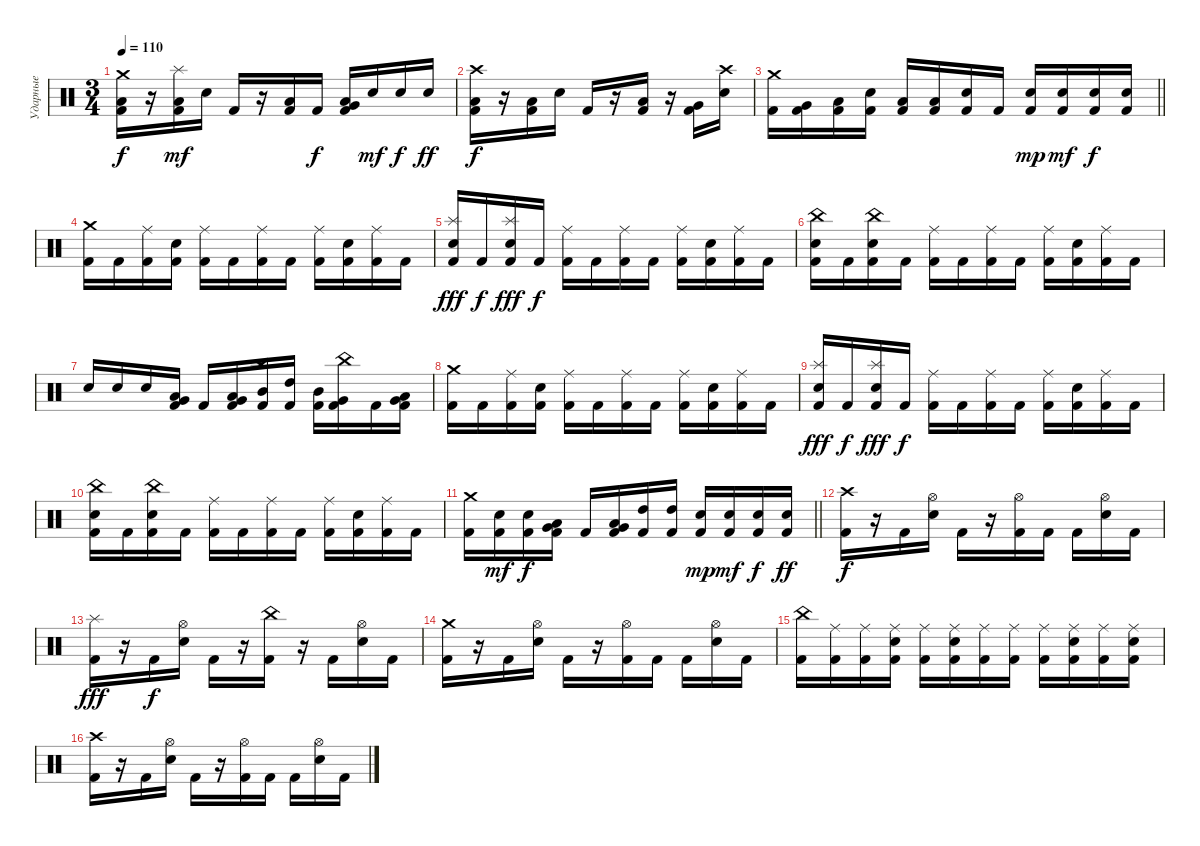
\track ("Ударные" "Ударные") {instrument percussion}
\staff {score}
\articulation defaults
\ts (3 4)
\tempo 110
\clef neutral
\ks c
("Crash medium (hit)" "Low Floor Tom (hit)" "Kick (hit) 2").16{dy f} r.16 ("Splash (hit)" "Low Tom (hit)" "Kick (hit) 2").16{dy mf} "Snare (hit) 2".16 "Kick (hit) 2".16 r.16 ("Low Floor Tom (hit)" "Kick (hit) 2").16 "Kick (hit) 2".16{dy f} ("Low Tom (hit)" "Very Low Tom (hit)" "Kick (hit) 2").16 "Snare (hit) 2".16{dy mf} "Snare (hit) 2".16{dy f} "Snare (hit) 2".16{dy ff} |
("Crash high (hit)" "Low Floor Tom (hit)" "Kick (hit) 2").16{dy f} r.16 ("Low Tom (hit)" "Kick (hit) 2").16 "Snare (hit) 2".16 "Kick (hit) 2".16 r.16 ("Low Floor Tom (hit)" "Kick (hit) 2").16 r.16 ("Very Low Tom (hit)" "Kick (hit) 2").16 ("Crash high (hit)" "Snare (hit) 2").16 |
\barLineRight lightlight
("Crash medium (hit)" "Kick (hit) 2").16 ("Very Low Tom (hit)" "Kick (hit) 2").16 ("Low Floor Tom (hit)" "Kick (hit) 2").16 ("Snare (hit) 2" "Kick (hit) 2").16 ("Low Tom (hit)" "Kick (hit) 2").16 ("Low Tom (hit)" "Kick (hit) 2").16 ("Snare (hit) 2" "Kick (hit) 2").16 "Kick (hit) 2".16 ("Snare (hit) 2" "Kick (hit) 2").16{dy mp} ("Snare (hit) 2" "Kick (hit) 2").16{dy mf} ("Snare (hit) 2" "Kick (hit) 2").16{dy f} ("Snare (hit) 2" "Kick (hit) 2").16 |
("Crash medium (hit)" "Kick (hit) 2").16 "Kick (hit) 2".16 ("Ride (middle)" "Kick (hit) 2").16 ("Snare (hit) 2" "Kick (hit) 2").16 ("Ride (middle)" "Kick (hit) 2").16 "Kick (hit) 2".16 ("Ride (middle)" "Kick (hit) 2").16 "Kick (hit) 2".16 ("Ride (middle)" "Kick (hit) 2").16 ("Snare (hit) 2" "Kick (hit) 2").16 ("Ride (middle)" "Kick (hit) 2").16 "Kick (hit) 2".16 |
("Splash (hit)" "Snare (hit) 2" "Kick (hit) 2").16{dy fff} "Kick (hit) 2".16{dy f} ("Splash (hit)" "Snare (hit) 2" "Kick (hit) 2").16{dy fff} "Kick (hit) 2".16{dy f} ("Ride (middle)" "Kick (hit) 2").16 "Kick (hit) 2".16 ("Ride (middle)" "Kick (hit) 2").16 "Kick (hit) 2".16 ("Ride (middle)" "Kick (hit) 2").16 ("Snare (hit) 2" "Kick (hit) 2").16 ("Ride (middle)" "Kick (hit) 2").16 "Kick (hit) 2".16 |
("China (hit)" "Snare (hit) 2" "Kick (hit) 2").16 "Kick (hit) 2".16 ("China (hit)" "Snare (hit) 2" "Kick (hit) 2").16 "Kick (hit) 2".16 ("Ride (middle)" "Kick (hit) 2").16 "Kick (hit) 2".16 ("Ride (middle)" "Kick (hit) 2").16 "Kick (hit) 2".16 ("Ride (middle)" "Kick (hit) 2").16 ("Snare (hit) 2" "Kick (hit) 2").16 ("Ride (middle)" "Kick (hit) 2").16 "Kick (hit) 2".16 |
"Snare (hit) 2".16 "Snare (hit) 2".16 "Snare (hit) 2".16 ("Low Tom (hit)" "Very Low Tom (hit)" "Kick (hit) 2").16 "Kick (hit) 2".16 ("Low Tom (hit)" "Very Low Tom (hit)" "Kick (hit) 2").16 ("Crash high (hit)" "Mid Tom (hit)" "Kick (hit) 2").16 ("High Tom (hit)" "Kick (hit) 2").16 ("Mid Tom (hit)" "Kick (hit) 2").16 ("China (hit)" "Very Low Tom (hit)" "Kick (hit) 2").16 "Kick (hit) 2".16 ("Very Low Tom (hit)" "Low Floor Tom (hit)" "Kick (hit) 2").16 |
("Crash medium (hit)" "Kick (hit) 2").16 "Kick (hit) 2".16 ("Ride (middle)" "Kick (hit) 2").16 ("Snare (hit) 2" "Kick (hit) 2").16 ("Ride (middle)" "Kick (hit) 2").16 "Kick (hit) 2".16 ("Ride (middle)" "Kick (hit) 2").16 "Kick (hit) 2".16 ("Ride (middle)" "Kick (hit) 2").16 ("Snare (hit) 2" "Kick (hit) 2").16 ("Ride (middle)" "Kick (hit) 2").16 "Kick (hit) 2".16 |
("Splash (hit)" "Snare (hit) 2" "Kick (hit) 2").16{dy fff} "Kick (hit) 2".16{dy f} ("Splash (hit)" "Snare (hit) 2" "Kick (hit) 2").16{dy fff} "Kick (hit) 2".16{dy f} ("Ride (middle)" "Kick (hit) 2").16 "Kick (hit) 2".16 ("Ride (middle)" "Kick (hit) 2").16 "Kick (hit) 2".16 ("Ride (middle)" "Kick (hit) 2").16 ("Snare (hit) 2" "Kick (hit) 2").16 ("Ride (middle)" "Kick (hit) 2").16 "Kick (hit) 2".16 |
("China (hit)" "Snare (hit) 2" "Kick (hit) 2").16 "Kick (hit) 2".16 ("China (hit)" "Snare (hit) 2" "Kick (hit) 2").16 "Kick (hit) 2".16 ("Ride (middle)" "Kick (hit) 2").16 "Kick (hit) 2".16 ("Ride (middle)" "Kick (hit) 2").16 "Kick (hit) 2".16 ("Ride (middle)" "Kick (hit) 2").16 ("Snare (hit) 2" "Kick (hit) 2").16 ("Ride (middle)" "Kick (hit) 2").16 "Kick (hit) 2".16 |
\barLineRight lightlight
("Crash medium (hit)" "Kick (hit) 2").16 ("Snare (hit) 2" "Kick (hit) 2").16{dy mf} ("Snare (hit) 2" "Kick (hit) 2").16{dy f} ("Low Tom (hit)" "Very Low Tom (hit)" "Kick (hit) 2").16 "Kick (hit) 2".16 ("Low Tom (hit)" "Very Low Tom (hit)" "Kick (hit) 2").16 ("High Tom (hit)" "Kick (hit) 2").16 ("High Tom (hit)" "Kick (hit) 2").16 ("Snare (hit) 2" "Kick (hit) 2").16{dy mp} ("Snare (hit) 2" "Kick (hit) 2").16{dy mf} ("Snare (hit) 2" "Kick (hit) 2").16{dy f} ("Snare (hit) 2" "Kick (hit) 2").16{dy ff} |
("Crash high (hit)" "Kick (hit) 2").16{dy f} r.16 "Kick (hit) 2".16 ("Hi-Hat (open)" "Snare (hit) 2").16 "Kick (hit) 2".16 r.16 ("Hi-Hat (open)" "Kick (hit) 2").16 "Kick (hit) 2".16 "Kick (hit) 2".16 ("Hi-Hat (open)" "Snare (hit) 2").16 "Kick (hit) 2".16 |
("Splash (hit)" "Kick (hit) 2").16{dy fff} r.16 "Kick (hit) 2".16{dy f} ("Hi-Hat (open)" "Snare (hit) 2").16 "Kick (hit) 2".16 r.16 ("China (hit)" "Kick (hit) 2").16 r.16 "Kick (hit) 2".16 ("Hi-Hat (open)" "Snare (hit) 2").16 "Kick (hit) 2".16 |
("Crash medium (hit)" "Kick (hit) 2").16 r.16 "Kick (hit) 2".16 ("Hi-Hat (open)" "Snare (hit) 2").16 "Kick (hit) 2".16 r.16 ("Hi-Hat (open)" "Kick (hit) 2").16 "Kick (hit) 2".16 "Kick (hit) 2".16 ("Hi-Hat (open)" "Snare (hit) 2").16 "Kick (hit) 2".16 |
("China (hit)" "Kick (hit) 2").16 ("Ride (middle)" "Kick (hit) 2").16 ("Ride (middle)" "Kick (hit) 2").16 ("Ride (middle)" "Snare (hit) 2" "Kick (hit) 2").16 ("Ride (middle)" "Kick (hit) 2").16 ("Ride (middle)" "Snare (hit) 2" "Kick (hit) 2").16 ("Ride (middle)" "Kick (hit) 2").16 ("Ride (middle)" "Kick (hit) 2").16 ("Ride (middle)" "Kick (hit) 2").16 ("Ride (middle)" "Snare (hit) 2" "Kick (hit) 2").16 ("Ride (middle)" "Kick (hit) 2").16 ("Ride (middle)" "Snare (hit) 2" "Kick (hit) 2").16 |
("Crash high (hit)" "Kick (hit) 2").16 r.16 "Kick (hit) 2".16 ("Hi-Hat (open)" "Snare (hit) 2").16 "Kick (hit) 2".16 r.16 ("Hi-Hat (open)" "Kick (hit) 2").16 "Kick (hit) 2".16 "Kick (hit) 2".16 ("Hi-Hat (open)" "Snare (hit) 2").16 "Kick (hit) 2".16
